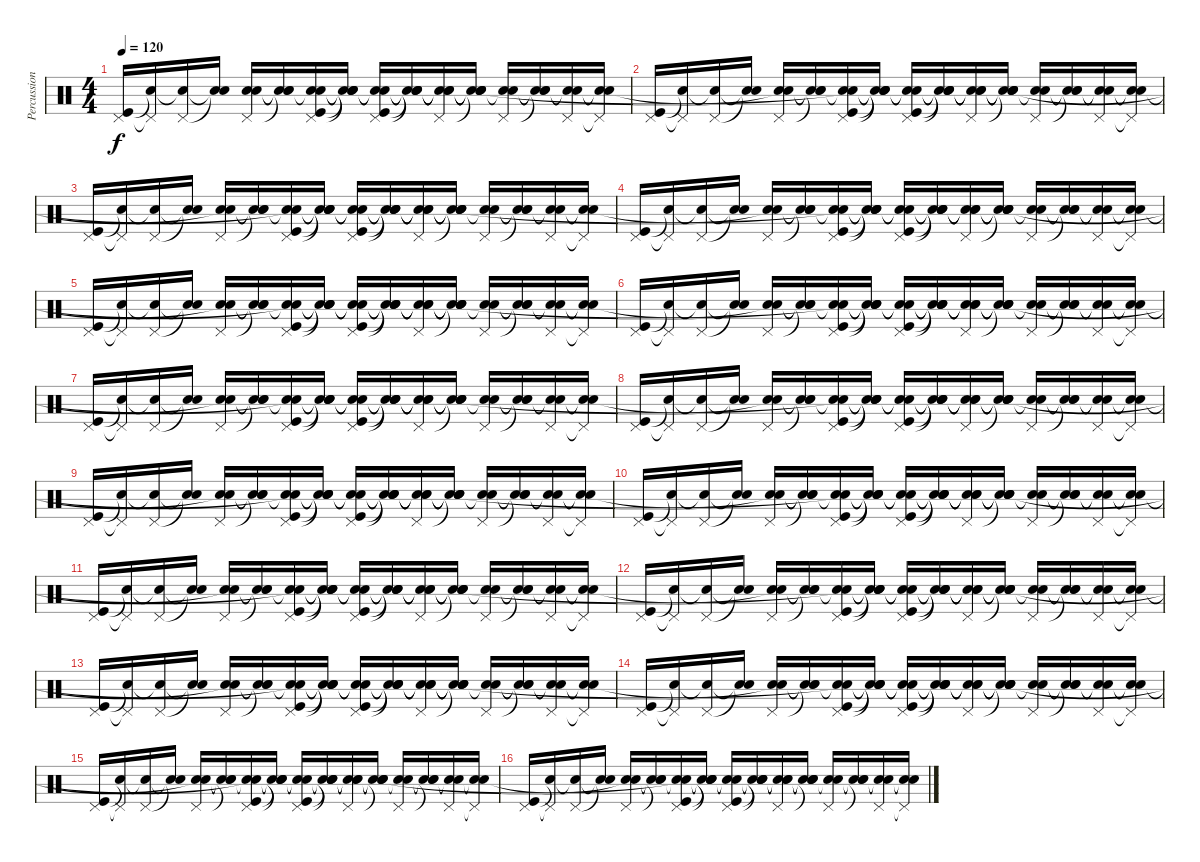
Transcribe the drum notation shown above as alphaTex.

\track ("Percussion" "Percussion") {instrument percussion}
\staff {score}
\articulation defaults
\ts (4 4)
\tempo 120
\clef neutral
\ks c
("Pedal Hi-Hat (hit)" "Kick (hit)").16{dy f} ("Pedal Hi-Hat (hit)"{t} "Snare (hit)"{t}).16 ("Pedal Hi-Hat (hit)" "Snare (hit)"{t}).16 ("Snare (hit)"{t} "Snare (hit)"{t}).16 ("Pedal Hi-Hat (hit)" "Electric Snare (hit)" "Snare (hit)"{t}).16 ("Snare (hit)"{t} "Snare (hit)"{t} "Snare (hit)"{t}).16 ("Pedal Hi-Hat (hit)" "Kick (hit)" "Snare (hit)"{t} "Snare (hit)"{t}).16 ("Snare (hit)"{t} "Snare (hit)"{t} "Snare (hit)"{t} "Snare (hit)"{t}).16 ("Pedal Hi-Hat (hit)" "Snare (hit)"{t} "Snare (hit)"{t} "Kick (hit)").16 ("Snare (hit)"{t} "Snare (hit)"{t} "Snare (hit)"{t} "Snare (hit)"{t}).16 ("Pedal Hi-Hat (hit)" "Snare (hit)"{t} "Snare (hit)"{t} "Snare (hit)"{t}).16 ("Snare (hit)"{t} "Snare (hit)"{t} "Snare (hit)"{t} "Snare (hit)"{t}).16 ("Pedal Hi-Hat (hit)" "Electric Snare (hit)" "Snare (hit)"{t}).16 ("Snare (hit)"{t} "Snare (hit)"{t} "Snare (hit)"{t}).16 ("Pedal Hi-Hat (hit)" "Snare (hit)"{t} "Snare (hit)"{t}).16 ("Pedal Hi-Hat (hit)"{t} "Snare (hit)"{t} "Snare (hit)"{t}).16 |
("Pedal Hi-Hat (hit)" "Kick (hit)").16 ("Pedal Hi-Hat (hit)"{t} "Snare (hit)"{t}).16 ("Pedal Hi-Hat (hit)" "Snare (hit)"{t}).16 ("Snare (hit)"{t} "Snare (hit)"{t}).16 ("Pedal Hi-Hat (hit)" "Electric Snare (hit)" "Snare (hit)"{t}).16 ("Snare (hit)"{t} "Snare (hit)"{t} "Snare (hit)"{t}).16 ("Pedal Hi-Hat (hit)" "Kick (hit)" "Snare (hit)"{t} "Snare (hit)"{t}).16 ("Snare (hit)"{t} "Snare (hit)"{t} "Snare (hit)"{t} "Snare (hit)"{t}).16 ("Pedal Hi-Hat (hit)" "Snare (hit)"{t} "Snare (hit)"{t} "Kick (hit)").16 ("Snare (hit)"{t} "Snare (hit)"{t} "Snare (hit)"{t} "Snare (hit)"{t}).16 ("Pedal Hi-Hat (hit)" "Snare (hit)"{t} "Snare (hit)"{t} "Snare (hit)"{t}).16 ("Snare (hit)"{t} "Snare (hit)"{t} "Snare (hit)"{t} "Snare (hit)"{t}).16 ("Pedal Hi-Hat (hit)" "Electric Snare (hit)" "Snare (hit)"{t}).16 ("Snare (hit)"{t} "Snare (hit)"{t} "Snare (hit)"{t}).16 ("Pedal Hi-Hat (hit)" "Snare (hit)"{t} "Snare (hit)"{t}).16 ("Pedal Hi-Hat (hit)"{t} "Snare (hit)"{t} "Snare (hit)"{t}).16 |
("Pedal Hi-Hat (hit)" "Kick (hit)").16 ("Pedal Hi-Hat (hit)"{t} "Snare (hit)"{t}).16 ("Pedal Hi-Hat (hit)" "Snare (hit)"{t}).16 ("Snare (hit)"{t} "Snare (hit)"{t}).16 ("Pedal Hi-Hat (hit)" "Electric Snare (hit)" "Snare (hit)"{t}).16 ("Snare (hit)"{t} "Snare (hit)"{t} "Snare (hit)"{t}).16 ("Pedal Hi-Hat (hit)" "Kick (hit)" "Snare (hit)"{t} "Snare (hit)"{t}).16 ("Snare (hit)"{t} "Snare (hit)"{t} "Snare (hit)"{t} "Snare (hit)"{t}).16 ("Pedal Hi-Hat (hit)" "Snare (hit)"{t} "Snare (hit)"{t} "Kick (hit)").16 ("Snare (hit)"{t} "Snare (hit)"{t} "Snare (hit)"{t} "Snare (hit)"{t}).16 ("Pedal Hi-Hat (hit)" "Snare (hit)"{t} "Snare (hit)"{t} "Snare (hit)"{t}).16 ("Snare (hit)"{t} "Snare (hit)"{t} "Snare (hit)"{t} "Snare (hit)"{t}).16 ("Pedal Hi-Hat (hit)" "Electric Snare (hit)" "Snare (hit)"{t}).16 ("Snare (hit)"{t} "Snare (hit)"{t} "Snare (hit)"{t}).16 ("Pedal Hi-Hat (hit)" "Snare (hit)"{t} "Snare (hit)"{t}).16 ("Pedal Hi-Hat (hit)"{t} "Snare (hit)"{t} "Snare (hit)"{t}).16 |
("Pedal Hi-Hat (hit)" "Kick (hit)").16 ("Pedal Hi-Hat (hit)"{t} "Snare (hit)"{t}).16 ("Pedal Hi-Hat (hit)" "Snare (hit)"{t}).16 ("Snare (hit)"{t} "Snare (hit)"{t}).16 ("Pedal Hi-Hat (hit)" "Electric Snare (hit)" "Snare (hit)"{t}).16 ("Snare (hit)"{t} "Snare (hit)"{t} "Snare (hit)"{t}).16 ("Pedal Hi-Hat (hit)" "Kick (hit)" "Snare (hit)"{t} "Snare (hit)"{t}).16 ("Snare (hit)"{t} "Snare (hit)"{t} "Snare (hit)"{t} "Snare (hit)"{t}).16 ("Pedal Hi-Hat (hit)" "Snare (hit)"{t} "Snare (hit)"{t} "Kick (hit)").16 ("Snare (hit)"{t} "Snare (hit)"{t} "Snare (hit)"{t} "Snare (hit)"{t}).16 ("Pedal Hi-Hat (hit)" "Snare (hit)"{t} "Snare (hit)"{t} "Snare (hit)"{t}).16 ("Snare (hit)"{t} "Snare (hit)"{t} "Snare (hit)"{t} "Snare (hit)"{t}).16 ("Pedal Hi-Hat (hit)" "Electric Snare (hit)" "Snare (hit)"{t}).16 ("Snare (hit)"{t} "Snare (hit)"{t} "Snare (hit)"{t}).16 ("Pedal Hi-Hat (hit)" "Snare (hit)"{t} "Snare (hit)"{t}).16 ("Pedal Hi-Hat (hit)"{t} "Snare (hit)"{t} "Snare (hit)"{t}).16 |
("Pedal Hi-Hat (hit)" "Kick (hit)").16 ("Pedal Hi-Hat (hit)"{t} "Snare (hit)"{t}).16 ("Pedal Hi-Hat (hit)" "Snare (hit)"{t}).16 ("Snare (hit)"{t} "Snare (hit)"{t}).16 ("Pedal Hi-Hat (hit)" "Electric Snare (hit)" "Snare (hit)"{t}).16 ("Snare (hit)"{t} "Snare (hit)"{t} "Snare (hit)"{t}).16 ("Pedal Hi-Hat (hit)" "Kick (hit)" "Snare (hit)"{t} "Snare (hit)"{t}).16 ("Snare (hit)"{t} "Snare (hit)"{t} "Snare (hit)"{t} "Snare (hit)"{t}).16 ("Pedal Hi-Hat (hit)" "Snare (hit)"{t} "Snare (hit)"{t} "Kick (hit)").16 ("Snare (hit)"{t} "Snare (hit)"{t} "Snare (hit)"{t} "Snare (hit)"{t}).16 ("Pedal Hi-Hat (hit)" "Snare (hit)"{t} "Snare (hit)"{t} "Snare (hit)"{t}).16 ("Snare (hit)"{t} "Snare (hit)"{t} "Snare (hit)"{t} "Snare (hit)"{t}).16 ("Pedal Hi-Hat (hit)" "Electric Snare (hit)" "Snare (hit)"{t}).16 ("Snare (hit)"{t} "Snare (hit)"{t} "Snare (hit)"{t}).16 ("Pedal Hi-Hat (hit)" "Snare (hit)"{t} "Snare (hit)"{t}).16 ("Pedal Hi-Hat (hit)"{t} "Snare (hit)"{t} "Snare (hit)"{t}).16 |
("Pedal Hi-Hat (hit)" "Kick (hit)").16 ("Pedal Hi-Hat (hit)"{t} "Snare (hit)"{t}).16 ("Pedal Hi-Hat (hit)" "Snare (hit)"{t}).16 ("Snare (hit)"{t} "Snare (hit)"{t}).16 ("Pedal Hi-Hat (hit)" "Electric Snare (hit)" "Snare (hit)"{t}).16 ("Snare (hit)"{t} "Snare (hit)"{t} "Snare (hit)"{t}).16 ("Pedal Hi-Hat (hit)" "Kick (hit)" "Snare (hit)"{t} "Snare (hit)"{t}).16 ("Snare (hit)"{t} "Snare (hit)"{t} "Snare (hit)"{t} "Snare (hit)"{t}).16 ("Pedal Hi-Hat (hit)" "Snare (hit)"{t} "Snare (hit)"{t} "Kick (hit)").16 ("Snare (hit)"{t} "Snare (hit)"{t} "Snare (hit)"{t} "Snare (hit)"{t}).16 ("Pedal Hi-Hat (hit)" "Snare (hit)"{t} "Snare (hit)"{t} "Snare (hit)"{t}).16 ("Snare (hit)"{t} "Snare (hit)"{t} "Snare (hit)"{t} "Snare (hit)"{t}).16 ("Pedal Hi-Hat (hit)" "Electric Snare (hit)" "Snare (hit)"{t}).16 ("Snare (hit)"{t} "Snare (hit)"{t} "Snare (hit)"{t}).16 ("Pedal Hi-Hat (hit)" "Snare (hit)"{t} "Snare (hit)"{t}).16 ("Pedal Hi-Hat (hit)"{t} "Snare (hit)"{t} "Snare (hit)"{t}).16 |
("Pedal Hi-Hat (hit)" "Kick (hit)").16 ("Pedal Hi-Hat (hit)"{t} "Snare (hit)"{t}).16 ("Pedal Hi-Hat (hit)" "Snare (hit)"{t}).16 ("Snare (hit)"{t} "Snare (hit)"{t}).16 ("Pedal Hi-Hat (hit)" "Electric Snare (hit)" "Snare (hit)"{t}).16 ("Snare (hit)"{t} "Snare (hit)"{t} "Snare (hit)"{t}).16 ("Pedal Hi-Hat (hit)" "Kick (hit)" "Snare (hit)"{t} "Snare (hit)"{t}).16 ("Snare (hit)"{t} "Snare (hit)"{t} "Snare (hit)"{t} "Snare (hit)"{t}).16 ("Pedal Hi-Hat (hit)" "Snare (hit)"{t} "Snare (hit)"{t} "Kick (hit)").16 ("Snare (hit)"{t} "Snare (hit)"{t} "Snare (hit)"{t} "Snare (hit)"{t}).16 ("Pedal Hi-Hat (hit)" "Snare (hit)"{t} "Snare (hit)"{t} "Snare (hit)"{t}).16 ("Snare (hit)"{t} "Snare (hit)"{t} "Snare (hit)"{t} "Snare (hit)"{t}).16 ("Pedal Hi-Hat (hit)" "Electric Snare (hit)" "Snare (hit)"{t}).16 ("Snare (hit)"{t} "Snare (hit)"{t} "Snare (hit)"{t}).16 ("Pedal Hi-Hat (hit)" "Snare (hit)"{t} "Snare (hit)"{t}).16 ("Pedal Hi-Hat (hit)"{t} "Snare (hit)"{t} "Snare (hit)"{t}).16 |
("Pedal Hi-Hat (hit)" "Kick (hit)").16 ("Pedal Hi-Hat (hit)"{t} "Snare (hit)"{t}).16 ("Pedal Hi-Hat (hit)" "Snare (hit)"{t}).16 ("Snare (hit)"{t} "Snare (hit)"{t}).16 ("Pedal Hi-Hat (hit)" "Electric Snare (hit)" "Snare (hit)"{t}).16 ("Snare (hit)"{t} "Snare (hit)"{t} "Snare (hit)"{t}).16 ("Pedal Hi-Hat (hit)" "Kick (hit)" "Snare (hit)"{t} "Snare (hit)"{t}).16 ("Snare (hit)"{t} "Snare (hit)"{t} "Snare (hit)"{t} "Snare (hit)"{t}).16 ("Pedal Hi-Hat (hit)" "Snare (hit)"{t} "Snare (hit)"{t} "Kick (hit)").16 ("Snare (hit)"{t} "Snare (hit)"{t} "Snare (hit)"{t} "Snare (hit)"{t}).16 ("Pedal Hi-Hat (hit)" "Snare (hit)"{t} "Snare (hit)"{t} "Snare (hit)"{t}).16 ("Snare (hit)"{t} "Snare (hit)"{t} "Snare (hit)"{t} "Snare (hit)"{t}).16 ("Pedal Hi-Hat (hit)" "Electric Snare (hit)" "Snare (hit)"{t}).16 ("Snare (hit)"{t} "Snare (hit)"{t} "Snare (hit)"{t}).16 ("Pedal Hi-Hat (hit)" "Snare (hit)"{t} "Snare (hit)"{t}).16 ("Pedal Hi-Hat (hit)"{t} "Snare (hit)"{t} "Snare (hit)"{t}).16 |
("Pedal Hi-Hat (hit)" "Kick (hit)").16 ("Pedal Hi-Hat (hit)"{t} "Snare (hit)"{t}).16 ("Pedal Hi-Hat (hit)" "Snare (hit)"{t}).16 ("Snare (hit)"{t} "Snare (hit)"{t}).16 ("Pedal Hi-Hat (hit)" "Electric Snare (hit)" "Snare (hit)"{t}).16 ("Snare (hit)"{t} "Snare (hit)"{t} "Snare (hit)"{t}).16 ("Pedal Hi-Hat (hit)" "Kick (hit)" "Snare (hit)"{t} "Snare (hit)"{t}).16 ("Snare (hit)"{t} "Snare (hit)"{t} "Snare (hit)"{t} "Snare (hit)"{t}).16 ("Pedal Hi-Hat (hit)" "Snare (hit)"{t} "Snare (hit)"{t} "Kick (hit)").16 ("Snare (hit)"{t} "Snare (hit)"{t} "Snare (hit)"{t} "Snare (hit)"{t}).16 ("Pedal Hi-Hat (hit)" "Snare (hit)"{t} "Snare (hit)"{t} "Snare (hit)"{t}).16 ("Snare (hit)"{t} "Snare (hit)"{t} "Snare (hit)"{t} "Snare (hit)"{t}).16 ("Pedal Hi-Hat (hit)" "Electric Snare (hit)" "Snare (hit)"{t}).16 ("Snare (hit)"{t} "Snare (hit)"{t} "Snare (hit)"{t}).16 ("Pedal Hi-Hat (hit)" "Snare (hit)"{t} "Snare (hit)"{t}).16 ("Pedal Hi-Hat (hit)"{t} "Snare (hit)"{t} "Snare (hit)"{t}).16 |
("Pedal Hi-Hat (hit)" "Kick (hit)").16 ("Pedal Hi-Hat (hit)"{t} "Snare (hit)"{t}).16 ("Pedal Hi-Hat (hit)" "Snare (hit)"{t}).16 ("Snare (hit)"{t} "Snare (hit)"{t}).16 ("Pedal Hi-Hat (hit)" "Electric Snare (hit)" "Snare (hit)"{t}).16 ("Snare (hit)"{t} "Snare (hit)"{t} "Snare (hit)"{t}).16 ("Pedal Hi-Hat (hit)" "Kick (hit)" "Snare (hit)"{t} "Snare (hit)"{t}).16 ("Snare (hit)"{t} "Snare (hit)"{t} "Snare (hit)"{t} "Snare (hit)"{t}).16 ("Pedal Hi-Hat (hit)" "Snare (hit)"{t} "Snare (hit)"{t} "Kick (hit)").16 ("Snare (hit)"{t} "Snare (hit)"{t} "Snare (hit)"{t} "Snare (hit)"{t}).16 ("Pedal Hi-Hat (hit)" "Snare (hit)"{t} "Snare (hit)"{t} "Snare (hit)"{t}).16 ("Snare (hit)"{t} "Snare (hit)"{t} "Snare (hit)"{t} "Snare (hit)"{t}).16 ("Pedal Hi-Hat (hit)" "Electric Snare (hit)" "Snare (hit)"{t}).16 ("Snare (hit)"{t} "Snare (hit)"{t} "Snare (hit)"{t}).16 ("Pedal Hi-Hat (hit)" "Snare (hit)"{t} "Snare (hit)"{t}).16 ("Pedal Hi-Hat (hit)"{t} "Snare (hit)"{t} "Snare (hit)"{t}).16 |
("Pedal Hi-Hat (hit)" "Kick (hit)").16 ("Pedal Hi-Hat (hit)"{t} "Snare (hit)"{t}).16 ("Pedal Hi-Hat (hit)" "Snare (hit)"{t}).16 ("Snare (hit)"{t} "Snare (hit)"{t}).16 ("Pedal Hi-Hat (hit)" "Electric Snare (hit)" "Snare (hit)"{t}).16 ("Snare (hit)"{t} "Snare (hit)"{t} "Snare (hit)"{t}).16 ("Pedal Hi-Hat (hit)" "Kick (hit)" "Snare (hit)"{t} "Snare (hit)"{t}).16 ("Snare (hit)"{t} "Snare (hit)"{t} "Snare (hit)"{t} "Snare (hit)"{t}).16 ("Pedal Hi-Hat (hit)" "Snare (hit)"{t} "Snare (hit)"{t} "Kick (hit)").16 ("Snare (hit)"{t} "Snare (hit)"{t} "Snare (hit)"{t} "Snare (hit)"{t}).16 ("Pedal Hi-Hat (hit)" "Snare (hit)"{t} "Snare (hit)"{t} "Snare (hit)"{t}).16 ("Snare (hit)"{t} "Snare (hit)"{t} "Snare (hit)"{t} "Snare (hit)"{t}).16 ("Pedal Hi-Hat (hit)" "Electric Snare (hit)" "Snare (hit)"{t}).16 ("Snare (hit)"{t} "Snare (hit)"{t} "Snare (hit)"{t}).16 ("Pedal Hi-Hat (hit)" "Snare (hit)"{t} "Snare (hit)"{t}).16 ("Pedal Hi-Hat (hit)"{t} "Snare (hit)"{t} "Snare (hit)"{t}).16 |
("Pedal Hi-Hat (hit)" "Kick (hit)").16 ("Pedal Hi-Hat (hit)"{t} "Snare (hit)"{t}).16 ("Pedal Hi-Hat (hit)" "Snare (hit)"{t}).16 ("Snare (hit)"{t} "Snare (hit)"{t}).16 ("Pedal Hi-Hat (hit)" "Electric Snare (hit)" "Snare (hit)"{t}).16 ("Snare (hit)"{t} "Snare (hit)"{t} "Snare (hit)"{t}).16 ("Pedal Hi-Hat (hit)" "Kick (hit)" "Snare (hit)"{t} "Snare (hit)"{t}).16 ("Snare (hit)"{t} "Snare (hit)"{t} "Snare (hit)"{t} "Snare (hit)"{t}).16 ("Pedal Hi-Hat (hit)" "Snare (hit)"{t} "Snare (hit)"{t} "Kick (hit)").16 ("Snare (hit)"{t} "Snare (hit)"{t} "Snare (hit)"{t} "Snare (hit)"{t}).16 ("Pedal Hi-Hat (hit)" "Snare (hit)"{t} "Snare (hit)"{t} "Snare (hit)"{t}).16 ("Snare (hit)"{t} "Snare (hit)"{t} "Snare (hit)"{t} "Snare (hit)"{t}).16 ("Pedal Hi-Hat (hit)" "Electric Snare (hit)" "Snare (hit)"{t}).16 ("Snare (hit)"{t} "Snare (hit)"{t} "Snare (hit)"{t}).16 ("Pedal Hi-Hat (hit)" "Snare (hit)"{t} "Snare (hit)"{t}).16 ("Pedal Hi-Hat (hit)"{t} "Snare (hit)"{t} "Snare (hit)"{t}).16 |
("Pedal Hi-Hat (hit)" "Kick (hit)").16 ("Pedal Hi-Hat (hit)"{t} "Snare (hit)"{t}).16 ("Pedal Hi-Hat (hit)" "Snare (hit)"{t}).16 ("Snare (hit)"{t} "Snare (hit)"{t}).16 ("Pedal Hi-Hat (hit)" "Electric Snare (hit)" "Snare (hit)"{t}).16 ("Snare (hit)"{t} "Snare (hit)"{t} "Snare (hit)"{t}).16 ("Pedal Hi-Hat (hit)" "Kick (hit)" "Snare (hit)"{t} "Snare (hit)"{t}).16 ("Snare (hit)"{t} "Snare (hit)"{t} "Snare (hit)"{t} "Snare (hit)"{t}).16 ("Pedal Hi-Hat (hit)" "Snare (hit)"{t} "Snare (hit)"{t} "Kick (hit)").16 ("Snare (hit)"{t} "Snare (hit)"{t} "Snare (hit)"{t} "Snare (hit)"{t}).16 ("Pedal Hi-Hat (hit)" "Snare (hit)"{t} "Snare (hit)"{t} "Snare (hit)"{t}).16 ("Snare (hit)"{t} "Snare (hit)"{t} "Snare (hit)"{t} "Snare (hit)"{t}).16 ("Pedal Hi-Hat (hit)" "Electric Snare (hit)" "Snare (hit)"{t}).16 ("Snare (hit)"{t} "Snare (hit)"{t} "Snare (hit)"{t}).16 ("Pedal Hi-Hat (hit)" "Snare (hit)"{t} "Snare (hit)"{t}).16 ("Pedal Hi-Hat (hit)"{t} "Snare (hit)"{t} "Snare (hit)"{t}).16 |
("Pedal Hi-Hat (hit)" "Kick (hit)").16 ("Pedal Hi-Hat (hit)"{t} "Snare (hit)"{t}).16 ("Pedal Hi-Hat (hit)" "Snare (hit)"{t}).16 ("Snare (hit)"{t} "Snare (hit)"{t}).16 ("Pedal Hi-Hat (hit)" "Electric Snare (hit)" "Snare (hit)"{t}).16 ("Snare (hit)"{t} "Snare (hit)"{t} "Snare (hit)"{t}).16 ("Pedal Hi-Hat (hit)" "Kick (hit)" "Snare (hit)"{t} "Snare (hit)"{t}).16 ("Snare (hit)"{t} "Snare (hit)"{t} "Snare (hit)"{t} "Snare (hit)"{t}).16 ("Pedal Hi-Hat (hit)" "Snare (hit)"{t} "Snare (hit)"{t} "Kick (hit)").16 ("Snare (hit)"{t} "Snare (hit)"{t} "Snare (hit)"{t} "Snare (hit)"{t}).16 ("Pedal Hi-Hat (hit)" "Snare (hit)"{t} "Snare (hit)"{t} "Snare (hit)"{t}).16 ("Snare (hit)"{t} "Snare (hit)"{t} "Snare (hit)"{t} "Snare (hit)"{t}).16 ("Pedal Hi-Hat (hit)" "Electric Snare (hit)" "Snare (hit)"{t}).16 ("Snare (hit)"{t} "Snare (hit)"{t} "Snare (hit)"{t}).16 ("Pedal Hi-Hat (hit)" "Snare (hit)"{t} "Snare (hit)"{t}).16 ("Pedal Hi-Hat (hit)"{t} "Snare (hit)"{t} "Snare (hit)"{t}).16 |
("Pedal Hi-Hat (hit)" "Kick (hit)").16 ("Pedal Hi-Hat (hit)"{t} "Snare (hit)"{t}).16 ("Pedal Hi-Hat (hit)" "Snare (hit)"{t}).16 ("Snare (hit)"{t} "Snare (hit)"{t}).16 ("Pedal Hi-Hat (hit)" "Electric Snare (hit)" "Snare (hit)"{t}).16 ("Snare (hit)"{t} "Snare (hit)"{t} "Snare (hit)"{t}).16 ("Pedal Hi-Hat (hit)" "Kick (hit)" "Snare (hit)"{t} "Snare (hit)"{t}).16 ("Snare (hit)"{t} "Snare (hit)"{t} "Snare (hit)"{t} "Snare (hit)"{t}).16 ("Pedal Hi-Hat (hit)" "Snare (hit)"{t} "Snare (hit)"{t} "Kick (hit)").16 ("Snare (hit)"{t} "Snare (hit)"{t} "Snare (hit)"{t} "Snare (hit)"{t}).16 ("Pedal Hi-Hat (hit)" "Snare (hit)"{t} "Snare (hit)"{t} "Snare (hit)"{t}).16 ("Snare (hit)"{t} "Snare (hit)"{t} "Snare (hit)"{t} "Snare (hit)"{t}).16 ("Pedal Hi-Hat (hit)" "Electric Snare (hit)" "Snare (hit)"{t}).16 ("Snare (hit)"{t} "Snare (hit)"{t} "Snare (hit)"{t}).16 ("Pedal Hi-Hat (hit)" "Snare (hit)"{t} "Snare (hit)"{t}).16 ("Pedal Hi-Hat (hit)"{t} "Snare (hit)"{t} "Snare (hit)"{t}).16 |
("Pedal Hi-Hat (hit)" "Kick (hit)").16 ("Pedal Hi-Hat (hit)"{t} "Snare (hit)"{t}).16 ("Pedal Hi-Hat (hit)" "Snare (hit)"{t}).16 ("Snare (hit)"{t} "Snare (hit)"{t}).16 ("Pedal Hi-Hat (hit)" "Electric Snare (hit)" "Snare (hit)"{t}).16 ("Snare (hit)"{t} "Snare (hit)"{t} "Snare (hit)"{t}).16 ("Pedal Hi-Hat (hit)" "Kick (hit)" "Snare (hit)"{t} "Snare (hit)"{t}).16 ("Snare (hit)"{t} "Snare (hit)"{t} "Snare (hit)"{t} "Snare (hit)"{t}).16 ("Pedal Hi-Hat (hit)" "Snare (hit)"{t} "Snare (hit)"{t} "Kick (hit)").16 ("Snare (hit)"{t} "Snare (hit)"{t} "Snare (hit)"{t} "Snare (hit)"{t}).16 ("Pedal Hi-Hat (hit)" "Snare (hit)"{t} "Snare (hit)"{t} "Snare (hit)"{t}).16 ("Snare (hit)"{t} "Snare (hit)"{t} "Snare (hit)"{t} "Snare (hit)"{t}).16 ("Pedal Hi-Hat (hit)" "Electric Snare (hit)" "Snare (hit)"{t}).16 ("Snare (hit)"{t} "Snare (hit)"{t} "Snare (hit)"{t}).16 ("Pedal Hi-Hat (hit)" "Snare (hit)"{t} "Snare (hit)"{t}).16 ("Pedal Hi-Hat (hit)"{t} "Snare (hit)"{t} "Snare (hit)"{t}).16
